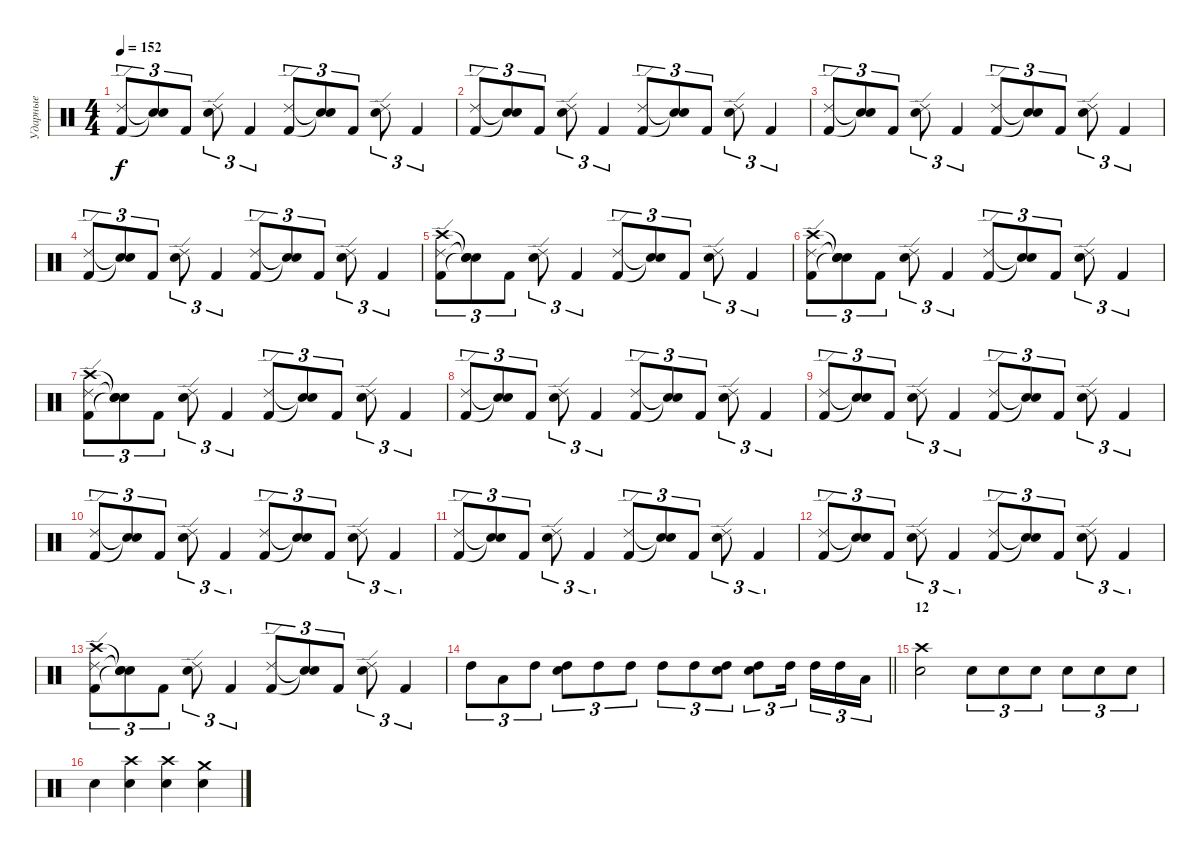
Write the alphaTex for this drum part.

\track ("Ударные" "Ударные") {instrument percussion}
\staff {score}
\articulation defaults
\ts (4 4)
\tempo 152
\clef neutral
\ks c
("Kick (hit) 2" "Ride (edge) 2").8{tu (3 2) dy f} ("Snare (hit)"{t} "Snare (hit)"{t}).8{tu (3 2)} "Kick (hit) 2".8{tu (3 2)} ("Electric Snare (hit)" "Ride (edge) 2").8{tu (3 2)} "Kick (hit) 2".4{tu (3 2)} ("Kick (hit) 2" "Ride (edge) 2").8{tu (3 2)} ("Snare (hit)"{t} "Snare (hit)"{t}).8{tu (3 2)} "Kick (hit) 2".8{tu (3 2)} ("Electric Snare (hit)" "Ride (edge) 2").8{tu (3 2)} "Kick (hit) 2".4{tu (3 2)} |
("Kick (hit) 2" "Ride (edge) 2").8{tu (3 2)} ("Snare (hit)"{t} "Snare (hit)"{t}).8{tu (3 2)} "Kick (hit) 2".8{tu (3 2)} ("Electric Snare (hit)" "Ride (edge) 2").8{tu (3 2)} "Kick (hit) 2".4{tu (3 2)} ("Kick (hit) 2" "Ride (edge) 2").8{tu (3 2)} ("Snare (hit)"{t} "Snare (hit)"{t}).8{tu (3 2)} "Kick (hit) 2".8{tu (3 2)} ("Electric Snare (hit)" "Ride (edge) 2").8{tu (3 2)} "Kick (hit) 2".4{tu (3 2)} |
("Kick (hit) 2" "Ride (edge) 2").8{tu (3 2)} ("Snare (hit)"{t} "Snare (hit)"{t}).8{tu (3 2)} "Kick (hit) 2".8{tu (3 2)} ("Electric Snare (hit)" "Ride (edge) 2").8{tu (3 2)} "Kick (hit) 2".4{tu (3 2)} ("Kick (hit) 2" "Ride (edge) 2").8{tu (3 2)} ("Snare (hit)"{t} "Snare (hit)"{t}).8{tu (3 2)} "Kick (hit) 2".8{tu (3 2)} ("Electric Snare (hit)" "Ride (edge) 2").8{tu (3 2)} "Kick (hit) 2".4{tu (3 2)} |
("Kick (hit) 2" "Ride (edge) 2").8{tu (3 2)} ("Snare (hit)"{t} "Snare (hit)"{t}).8{tu (3 2)} "Kick (hit) 2".8{tu (3 2)} ("Electric Snare (hit)" "Ride (edge) 2").8{tu (3 2)} "Kick (hit) 2".4{tu (3 2)} ("Kick (hit) 2" "Ride (edge) 2").8{tu (3 2)} ("Snare (hit)"{t} "Snare (hit)"{t}).8{tu (3 2)} "Kick (hit) 2".8{tu (3 2)} ("Electric Snare (hit)" "Ride (edge) 2").8{tu (3 2)} "Kick (hit) 2".4{tu (3 2)} |
("Kick (hit) 2" "Crash high (hit)" "Ride (edge) 2").8{tu (3 2)} ("Snare (hit)"{t} "Snare (hit)"{t} "Snare (hit)"{t}).8{tu (3 2)} "Kick (hit) 2".8{tu (3 2)} ("Electric Snare (hit)" "Ride (edge) 2").8{tu (3 2)} "Kick (hit) 2".4{tu (3 2)} ("Kick (hit) 2" "Ride (edge) 2").8{tu (3 2)} ("Snare (hit)"{t} "Snare (hit)"{t}).8{tu (3 2)} "Kick (hit) 2".8{tu (3 2)} ("Electric Snare (hit)" "Ride (edge) 2").8{tu (3 2)} "Kick (hit) 2".4{tu (3 2)} |
("Kick (hit) 2" "Crash high (hit)" "Ride (edge) 2").8{tu (3 2)} ("Snare (hit)"{t} "Snare (hit)"{t} "Snare (hit)"{t}).8{tu (3 2)} "Kick (hit) 2".8{tu (3 2)} ("Electric Snare (hit)" "Ride (edge) 2").8{tu (3 2)} "Kick (hit) 2".4{tu (3 2)} ("Kick (hit) 2" "Ride (edge) 2").8{tu (3 2)} ("Snare (hit)"{t} "Snare (hit)"{t}).8{tu (3 2)} "Kick (hit) 2".8{tu (3 2)} ("Electric Snare (hit)" "Ride (edge) 2").8{tu (3 2)} "Kick (hit) 2".4{tu (3 2)} |
("Kick (hit) 2" "Crash high (hit)" "Ride (edge) 2").8{tu (3 2)} ("Snare (hit)"{t} "Snare (hit)"{t} "Snare (hit)"{t}).8{tu (3 2)} "Kick (hit) 2".8{tu (3 2)} ("Electric Snare (hit)" "Ride (edge) 2").8{tu (3 2)} "Kick (hit) 2".4{tu (3 2)} ("Kick (hit) 2" "Ride (edge) 2").8{tu (3 2)} ("Snare (hit)"{t} "Snare (hit)"{t}).8{tu (3 2)} "Kick (hit) 2".8{tu (3 2)} ("Electric Snare (hit)" "Ride (edge) 2").8{tu (3 2)} "Kick (hit) 2".4{tu (3 2)} |
("Kick (hit) 2" "Ride (edge) 2").8{tu (3 2)} ("Snare (hit)"{t} "Snare (hit)"{t}).8{tu (3 2)} "Kick (hit) 2".8{tu (3 2)} ("Electric Snare (hit)" "Ride (edge) 2").8{tu (3 2)} "Kick (hit) 2".4{tu (3 2)} ("Kick (hit) 2" "Ride (edge) 2").8{tu (3 2)} ("Snare (hit)"{t} "Snare (hit)"{t}).8{tu (3 2)} "Kick (hit) 2".8{tu (3 2)} ("Electric Snare (hit)" "Ride (edge) 2").8{tu (3 2)} "Kick (hit) 2".4{tu (3 2)} |
("Kick (hit) 2" "Ride (edge) 2").8{tu (3 2)} ("Snare (hit)"{t} "Snare (hit)"{t}).8{tu (3 2)} "Kick (hit) 2".8{tu (3 2)} ("Electric Snare (hit)" "Ride (edge) 2").8{tu (3 2)} "Kick (hit) 2".4{tu (3 2)} ("Kick (hit) 2" "Ride (edge) 2").8{tu (3 2)} ("Snare (hit)"{t} "Snare (hit)"{t}).8{tu (3 2)} "Kick (hit) 2".8{tu (3 2)} ("Electric Snare (hit)" "Ride (edge) 2").8{tu (3 2)} "Kick (hit) 2".4{tu (3 2)} |
("Kick (hit) 2" "Ride (edge) 2").8{tu (3 2)} ("Snare (hit)"{t} "Snare (hit)"{t}).8{tu (3 2)} "Kick (hit) 2".8{tu (3 2)} ("Electric Snare (hit)" "Ride (edge) 2").8{tu (3 2)} "Kick (hit) 2".4{tu (3 2)} ("Kick (hit) 2" "Ride (edge) 2").8{tu (3 2)} ("Snare (hit)"{t} "Snare (hit)"{t}).8{tu (3 2)} "Kick (hit) 2".8{tu (3 2)} ("Electric Snare (hit)" "Ride (edge) 2").8{tu (3 2)} "Kick (hit) 2".4{tu (3 2)} |
("Kick (hit) 2" "Ride (edge) 2").8{tu (3 2)} ("Snare (hit)"{t} "Snare (hit)"{t}).8{tu (3 2)} "Kick (hit) 2".8{tu (3 2)} ("Electric Snare (hit)" "Ride (edge) 2").8{tu (3 2)} "Kick (hit) 2".4{tu (3 2)} ("Kick (hit) 2" "Ride (edge) 2").8{tu (3 2)} ("Snare (hit)"{t} "Snare (hit)"{t}).8{tu (3 2)} "Kick (hit) 2".8{tu (3 2)} ("Electric Snare (hit)" "Ride (edge) 2").8{tu (3 2)} "Kick (hit) 2".4{tu (3 2)} |
("Kick (hit) 2" "Ride (edge) 2").8{tu (3 2)} ("Snare (hit)"{t} "Snare (hit)"{t}).8{tu (3 2)} "Kick (hit) 2".8{tu (3 2)} ("Electric Snare (hit)" "Ride (edge) 2").8{tu (3 2)} "Kick (hit) 2".4{tu (3 2)} ("Kick (hit) 2" "Ride (edge) 2").8{tu (3 2)} ("Snare (hit)"{t} "Snare (hit)"{t}).8{tu (3 2)} "Kick (hit) 2".8{tu (3 2)} ("Electric Snare (hit)" "Ride (edge) 2").8{tu (3 2)} "Kick (hit) 2".4{tu (3 2)} |
("Kick (hit) 2" "Crash high (hit)" "Ride (edge) 2").8{tu (3 2)} ("Snare (hit)"{t} "Snare (hit)"{t} "Snare (hit)"{t}).8{tu (3 2)} "Kick (hit) 2".8{tu (3 2)} ("Electric Snare (hit)" "Ride (edge) 2").8{tu (3 2)} "Kick (hit) 2".4{tu (3 2)} ("Kick (hit) 2" "Ride (edge) 2").8{tu (3 2)} ("Snare (hit)"{t} "Snare (hit)"{t}).8{tu (3 2)} "Kick (hit) 2".8{tu (3 2)} ("Electric Snare (hit)" "Ride (edge) 2").8{tu (3 2)} "Kick (hit) 2".4{tu (3 2)} |
\barLineRight lightlight "High Tom (hit)".8{tu (3 2)} "Low Tom (hit)".8{tu (3 2)} "High Tom (hit)".8{tu (3 2)}
("High Tom (hit)" "Electric Snare (hit)").8{tu (3 2)} "High Tom (hit)".8{tu (3 2)} "High Tom (hit)".8{tu (3 2)} "High Tom (hit)".8{tu (3 2)} "High Tom (hit)".8{tu (3 2)} ("High Tom (hit)" "Electric Snare (hit)").8{tu (3 2)} ("High Tom (hit)" "Electric Snare (hit)").8{tu (3 2)} "High Tom (hit)".16{tu (3 2) beam splitsecondary} "High Tom (hit)".16{tu (3 2)} "High Tom (hit)".16{tu (3 2)} "Low Tom (hit)".16{tu (3 2)} |
\section ("" "12")
("Electric Snare (hit)" "Crash high (hit)").2 "Electric Snare (hit)".8{tu (3 2)} "Electric Snare (hit)".8{tu (3 2)} "Electric Snare (hit)".8{tu (3 2)} "Electric Snare (hit)".8{tu (3 2)} "Electric Snare (hit)".8{tu (3 2)} "Electric Snare (hit)".8{tu (3 2)} |
"Electric Snare (hit)".4 ("Electric Snare (hit)" "Crash high (hit)").4 ("Electric Snare (hit)" "Crash high (hit)").4 ("Electric Snare (hit)" "Crash medium (hit)").4
